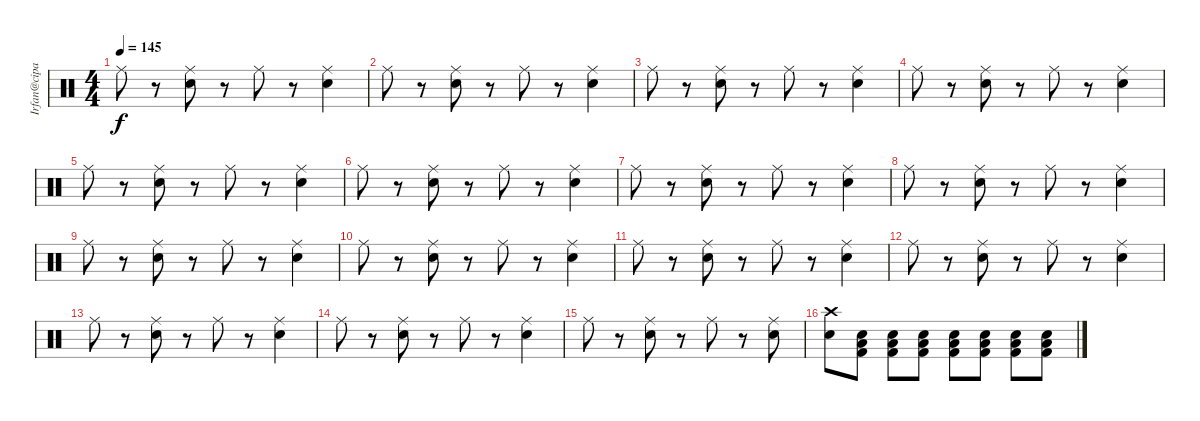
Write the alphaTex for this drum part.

\track ("Irfan@cipan 2" "Irfan@cipa") {instrument percussion}
\staff {score}
\articulation defaults
\ts (4 4)
\tempo 145
\clef neutral
\ks c "Ride (middle)".8{dy f}
r.8 ("Ride (middle)" "Electric Snare (hit)").8 r.8 "Ride (middle)".8 r.8 ("Ride (middle)" "Electric Snare (hit)").4 |
"Ride (middle)".8 r.8 ("Ride (middle)" "Electric Snare (hit)").8 r.8 "Ride (middle)".8 r.8 ("Ride (middle)" "Electric Snare (hit)").4 |
"Ride (middle)".8 r.8 ("Ride (middle)" "Electric Snare (hit)").8 r.8 "Ride (middle)".8 r.8 ("Ride (middle)" "Electric Snare (hit)").4 |
"Ride (middle)".8 r.8 ("Ride (middle)" "Electric Snare (hit)").8 r.8 "Ride (middle)".8 r.8 ("Ride (middle)" "Electric Snare (hit)").4 |
"Ride (middle)".8 r.8 ("Ride (middle)" "Electric Snare (hit)").8 r.8 "Ride (middle)".8 r.8 ("Ride (middle)" "Electric Snare (hit)").4 |
"Ride (middle)".8 r.8 ("Ride (middle)" "Electric Snare (hit)").8 r.8 "Ride (middle)".8 r.8 ("Ride (middle)" "Electric Snare (hit)").4 |
"Ride (middle)".8 r.8 ("Ride (middle)" "Electric Snare (hit)").8 r.8 "Ride (middle)".8 r.8 ("Ride (middle)" "Electric Snare (hit)").4 |
"Ride (middle)".8 r.8 ("Ride (middle)" "Electric Snare (hit)").8 r.8 "Ride (middle)".8 r.8 ("Ride (middle)" "Electric Snare (hit)").4 |
"Ride (middle)".8 r.8 ("Ride (middle)" "Electric Snare (hit)").8 r.8 "Ride (middle)".8 r.8 ("Ride (middle)" "Electric Snare (hit)").4 |
"Ride (middle)".8 r.8 ("Ride (middle)" "Electric Snare (hit)").8 r.8 "Ride (middle)".8 r.8 ("Ride (middle)" "Electric Snare (hit)").4 |
"Ride (middle)".8 r.8 ("Ride (middle)" "Electric Snare (hit)").8 r.8 "Ride (middle)".8 r.8 ("Ride (middle)" "Electric Snare (hit)").4 |
"Ride (middle)".8 r.8 ("Ride (middle)" "Electric Snare (hit)").8 r.8 "Ride (middle)".8 r.8 ("Ride (middle)" "Electric Snare (hit)").4 |
"Ride (middle)".8 r.8 ("Ride (middle)" "Electric Snare (hit)").8 r.8 "Ride (middle)".8 r.8 ("Ride (middle)" "Electric Snare (hit)").4 |
"Ride (middle)".8 r.8 ("Ride (middle)" "Electric Snare (hit)").8 r.8 "Ride (middle)".8 r.8 ("Ride (middle)" "Electric Snare (hit)").4 |
"Ride (middle)".8 r.8 ("Ride (middle)" "Electric Snare (hit)").8 r.8 "Ride (middle)".8 r.8 ("Ride (middle)" "Electric Snare (hit)").8 |
("Crash high (hit)" "Electric Snare (hit)").8 ("Kick (hit) 2" "Low Floor Tom (hit)" "Electric Snare (hit)").8 ("Kick (hit) 2" "Low Floor Tom (hit)" "Electric Snare (hit)").8 ("Kick (hit) 2" "Low Floor Tom (hit)" "Electric Snare (hit)").8 ("Kick (hit) 2" "Low Floor Tom (hit)" "Electric Snare (hit)").8 ("Kick (hit) 2" "Low Floor Tom (hit)" "Electric Snare (hit)").8 ("Kick (hit) 2" "Low Floor Tom (hit)" "Electric Snare (hit)").8 ("Kick (hit) 2" "Low Floor Tom (hit)" "Electric Snare (hit)").8
